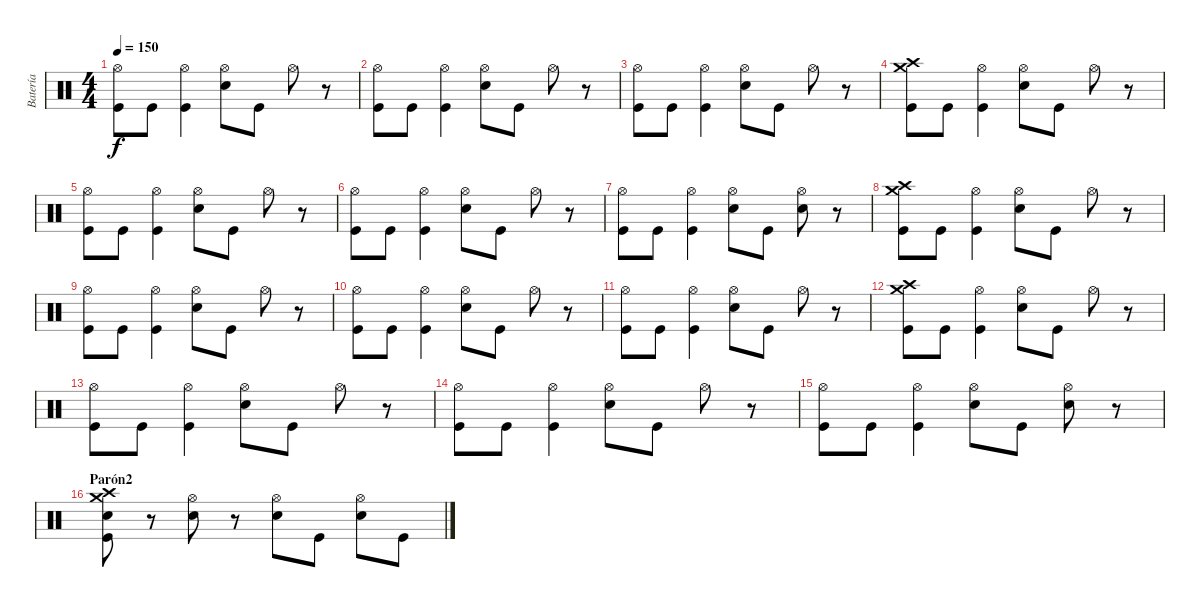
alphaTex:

\track ("Batería" "Batería") {instrument percussion}
\staff {score}
\articulation defaults
\ts (4 4)
\tempo 150
\clef neutral
\ks c
("Hi-Hat (open)" "Kick (hit)").8{dy f} "Kick (hit)".8 ("Hi-Hat (open)" "Kick (hit)").4 ("Hi-Hat (open)" "Snare (hit) 2").8 "Kick (hit)".8 "Hi-Hat (open)".8 r.8 |
("Hi-Hat (open)" "Kick (hit)").8 "Kick (hit)".8 ("Hi-Hat (open)" "Kick (hit)").4 ("Hi-Hat (open)" "Snare (hit) 2").8 "Kick (hit)".8 "Hi-Hat (open)".8 r.8 |
("Hi-Hat (open)" "Kick (hit)").8 "Kick (hit)".8 ("Hi-Hat (open)" "Kick (hit)").4 ("Hi-Hat (open)" "Snare (hit) 2").8 "Kick (hit)".8 "Hi-Hat (open)".8 r.8 |
("Crash high (hit)" "Crash medium (hit)" "Kick (hit)").8 "Kick (hit)".8 ("Hi-Hat (open)" "Kick (hit)").4 ("Hi-Hat (open)" "Snare (hit) 2").8 "Kick (hit)".8 "Hi-Hat (open)".8 r.8 |
("Hi-Hat (open)" "Kick (hit)").8 "Kick (hit)".8 ("Hi-Hat (open)" "Kick (hit)").4 ("Hi-Hat (open)" "Snare (hit) 2").8 "Kick (hit)".8 "Hi-Hat (open)".8 r.8 |
("Hi-Hat (open)" "Kick (hit)").8 "Kick (hit)".8 ("Hi-Hat (open)" "Kick (hit)").4 ("Hi-Hat (open)" "Snare (hit) 2").8 "Kick (hit)".8 "Hi-Hat (open)".8 r.8 |
("Hi-Hat (open)" "Kick (hit)").8 "Kick (hit)".8 ("Hi-Hat (open)" "Kick (hit)").4 ("Hi-Hat (open)" "Snare (hit) 2").8 "Kick (hit)".8 ("Hi-Hat (open)" "Snare (hit) 2").8 r.8 |
("Crash high (hit)" "Crash medium (hit)" "Kick (hit)").8 "Kick (hit)".8 ("Hi-Hat (open)" "Kick (hit)").4 ("Hi-Hat (open)" "Snare (hit) 2").8 "Kick (hit)".8 "Hi-Hat (open)".8 r.8 |
("Hi-Hat (open)" "Kick (hit)").8 "Kick (hit)".8 ("Hi-Hat (open)" "Kick (hit)").4 ("Hi-Hat (open)" "Snare (hit) 2").8 "Kick (hit)".8 "Hi-Hat (open)".8 r.8 |
("Hi-Hat (open)" "Kick (hit)").8 "Kick (hit)".8 ("Hi-Hat (open)" "Kick (hit)").4 ("Hi-Hat (open)" "Snare (hit) 2").8 "Kick (hit)".8 "Hi-Hat (open)".8 r.8 |
("Hi-Hat (open)" "Kick (hit)").8 "Kick (hit)".8 ("Hi-Hat (open)" "Kick (hit)").4 ("Hi-Hat (open)" "Snare (hit) 2").8 "Kick (hit)".8 "Hi-Hat (open)".8 r.8 |
("Crash high (hit)" "Crash medium (hit)" "Kick (hit)").8 "Kick (hit)".8 ("Hi-Hat (open)" "Kick (hit)").4 ("Hi-Hat (open)" "Snare (hit) 2").8 "Kick (hit)".8 "Hi-Hat (open)".8 r.8 |
("Hi-Hat (open)" "Kick (hit)").8 "Kick (hit)".8 ("Hi-Hat (open)" "Kick (hit)").4 ("Hi-Hat (open)" "Snare (hit) 2").8 "Kick (hit)".8 "Hi-Hat (open)".8 r.8 |
("Hi-Hat (open)" "Kick (hit)").8 "Kick (hit)".8 ("Hi-Hat (open)" "Kick (hit)").4 ("Hi-Hat (open)" "Snare (hit) 2").8 "Kick (hit)".8 "Hi-Hat (open)".8 r.8 |
("Hi-Hat (open)" "Kick (hit)").8 "Kick (hit)".8 ("Hi-Hat (open)" "Kick (hit)").4 ("Hi-Hat (open)" "Snare (hit) 2").8 "Kick (hit)".8 ("Hi-Hat (open)" "Snare (hit) 2").8 r.8 |
\section ("" "Parón2")
("Crash medium (hit)" "Snare (hit) 2" "Crash high (hit)" "Kick (hit)").8 r.8 ("Hi-Hat (open)" "Snare (hit) 2").8 r.8 ("Hi-Hat (open)" "Snare (hit) 2").8 "Kick (hit)".8 ("Hi-Hat (open)" "Snare (hit) 2").8 "Kick (hit)".8
